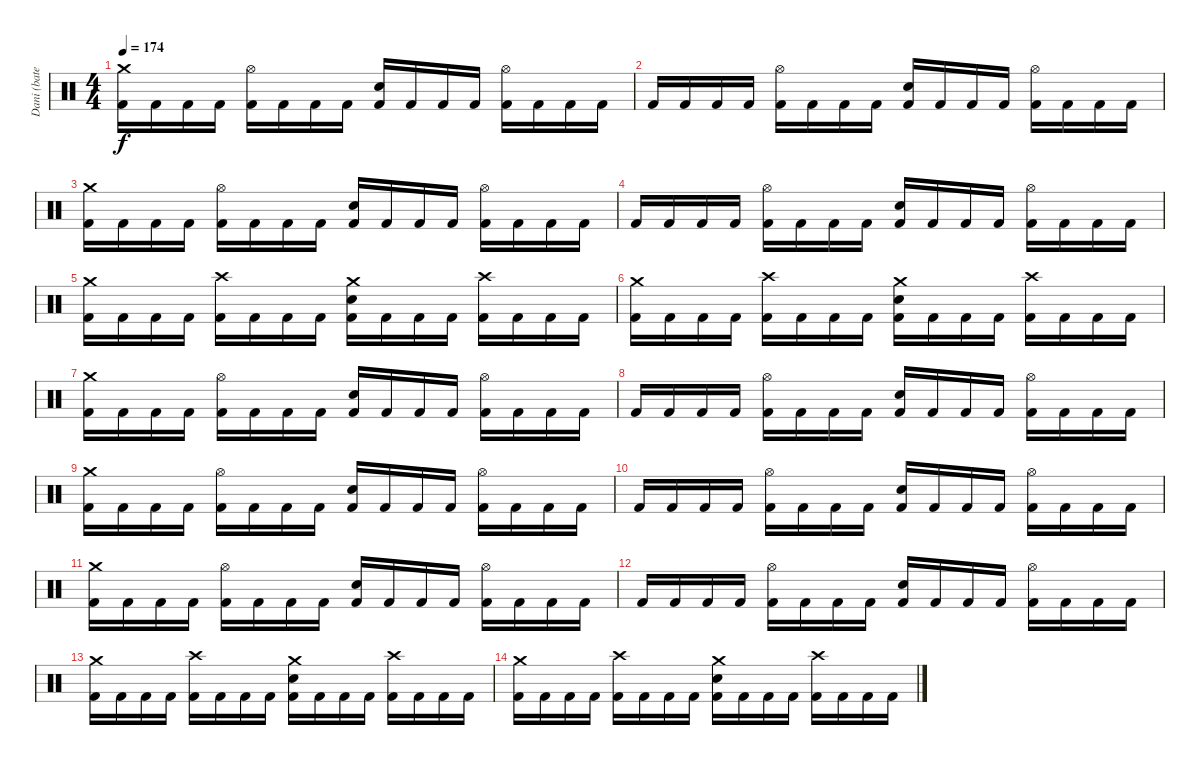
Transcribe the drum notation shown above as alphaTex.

\track ("Dani (batería)" "Dani (bate") {instrument percussion}
\staff {score}
\articulation defaults
\ts (4 4)
\tempo 174
\clef neutral
\ks c
("Crash medium (hit)" "Kick (hit) 2").16{dy f} "Kick (hit) 2".16 "Kick (hit) 2".16 "Kick (hit) 2".16 ("Hi-Hat (open)" "Kick (hit) 2").16 "Kick (hit) 2".16 "Kick (hit) 2".16 "Kick (hit) 2".16 ("Electric Snare (hit)" "Kick (hit) 2").16 "Kick (hit) 2".16 "Kick (hit) 2".16 "Kick (hit) 2".16 ("Hi-Hat (open)" "Kick (hit) 2").16 "Kick (hit) 2".16 "Kick (hit) 2".16 "Kick (hit) 2".16 |
"Kick (hit) 2".16 "Kick (hit) 2".16 "Kick (hit) 2".16 "Kick (hit) 2".16 ("Hi-Hat (open)" "Kick (hit) 2").16 "Kick (hit) 2".16 "Kick (hit) 2".16 "Kick (hit) 2".16 ("Electric Snare (hit)" "Kick (hit) 2").16 "Kick (hit) 2".16 "Kick (hit) 2".16 "Kick (hit) 2".16 ("Hi-Hat (open)" "Kick (hit) 2").16 "Kick (hit) 2".16 "Kick (hit) 2".16 "Kick (hit) 2".16 |
("Crash medium (hit)" "Kick (hit) 2").16 "Kick (hit) 2".16 "Kick (hit) 2".16 "Kick (hit) 2".16 ("Hi-Hat (open)" "Kick (hit) 2").16 "Kick (hit) 2".16 "Kick (hit) 2".16 "Kick (hit) 2".16 ("Electric Snare (hit)" "Kick (hit) 2").16 "Kick (hit) 2".16 "Kick (hit) 2".16 "Kick (hit) 2".16 ("Hi-Hat (open)" "Kick (hit) 2").16 "Kick (hit) 2".16 "Kick (hit) 2".16 "Kick (hit) 2".16 |
"Kick (hit) 2".16 "Kick (hit) 2".16 "Kick (hit) 2".16 "Kick (hit) 2".16 ("Hi-Hat (open)" "Kick (hit) 2").16 "Kick (hit) 2".16 "Kick (hit) 2".16 "Kick (hit) 2".16 ("Electric Snare (hit)" "Kick (hit) 2").16 "Kick (hit) 2".16 "Kick (hit) 2".16 "Kick (hit) 2".16 ("Hi-Hat (open)" "Kick (hit) 2").16 "Kick (hit) 2".16 "Kick (hit) 2".16 "Kick (hit) 2".16 |
("Crash medium (hit)" "Kick (hit) 2").16 "Kick (hit) 2".16 "Kick (hit) 2".16 "Kick (hit) 2".16 ("Crash high (hit)" "Kick (hit) 2").16 "Kick (hit) 2".16 "Kick (hit) 2".16 "Kick (hit) 2".16 ("Crash medium (hit)" "Electric Snare (hit)" "Kick (hit) 2").16 "Kick (hit) 2".16 "Kick (hit) 2".16 "Kick (hit) 2".16 ("Crash high (hit)" "Kick (hit) 2").16 "Kick (hit) 2".16 "Kick (hit) 2".16 "Kick (hit) 2".16 |
("Crash medium (hit)" "Kick (hit) 2").16 "Kick (hit) 2".16 "Kick (hit) 2".16 "Kick (hit) 2".16 ("Crash high (hit)" "Kick (hit) 2").16 "Kick (hit) 2".16 "Kick (hit) 2".16 "Kick (hit) 2".16 ("Crash medium (hit)" "Electric Snare (hit)" "Kick (hit) 2").16 "Kick (hit) 2".16 "Kick (hit) 2".16 "Kick (hit) 2".16 ("Crash high (hit)" "Kick (hit) 2").16 "Kick (hit) 2".16 "Kick (hit) 2".16 "Kick (hit) 2".16 |
("Crash medium (hit)" "Kick (hit) 2").16 "Kick (hit) 2".16 "Kick (hit) 2".16 "Kick (hit) 2".16 ("Hi-Hat (open)" "Kick (hit) 2").16 "Kick (hit) 2".16 "Kick (hit) 2".16 "Kick (hit) 2".16 ("Electric Snare (hit)" "Kick (hit) 2").16 "Kick (hit) 2".16 "Kick (hit) 2".16 "Kick (hit) 2".16 ("Hi-Hat (open)" "Kick (hit) 2").16 "Kick (hit) 2".16 "Kick (hit) 2".16 "Kick (hit) 2".16 |
"Kick (hit) 2".16 "Kick (hit) 2".16 "Kick (hit) 2".16 "Kick (hit) 2".16 ("Hi-Hat (open)" "Kick (hit) 2").16 "Kick (hit) 2".16 "Kick (hit) 2".16 "Kick (hit) 2".16 ("Electric Snare (hit)" "Kick (hit) 2").16 "Kick (hit) 2".16 "Kick (hit) 2".16 "Kick (hit) 2".16 ("Hi-Hat (open)" "Kick (hit) 2").16 "Kick (hit) 2".16 "Kick (hit) 2".16 "Kick (hit) 2".16 |
("Crash medium (hit)" "Kick (hit) 2").16{volume 14} "Kick (hit) 2".16 "Kick (hit) 2".16 "Kick (hit) 2".16 ("Hi-Hat (open)" "Kick (hit) 2").16 "Kick (hit) 2".16 "Kick (hit) 2".16 "Kick (hit) 2".16 ("Electric Snare (hit)" "Kick (hit) 2").16 "Kick (hit) 2".16 "Kick (hit) 2".16 "Kick (hit) 2".16 ("Hi-Hat (open)" "Kick (hit) 2").16 "Kick (hit) 2".16 "Kick (hit) 2".16 "Kick (hit) 2".16 |
"Kick (hit) 2".16{volume 12} "Kick (hit) 2".16 "Kick (hit) 2".16 "Kick (hit) 2".16 ("Hi-Hat (open)" "Kick (hit) 2").16 "Kick (hit) 2".16 "Kick (hit) 2".16 "Kick (hit) 2".16 ("Electric Snare (hit)" "Kick (hit) 2").16 "Kick (hit) 2".16 "Kick (hit) 2".16 "Kick (hit) 2".16 ("Hi-Hat (open)" "Kick (hit) 2").16 "Kick (hit) 2".16 "Kick (hit) 2".16 "Kick (hit) 2".16 |
("Crash medium (hit)" "Kick (hit) 2").16{volume 12} "Kick (hit) 2".16 "Kick (hit) 2".16 "Kick (hit) 2".16 ("Hi-Hat (open)" "Kick (hit) 2").16 "Kick (hit) 2".16 "Kick (hit) 2".16 "Kick (hit) 2".16 ("Electric Snare (hit)" "Kick (hit) 2").16 "Kick (hit) 2".16 "Kick (hit) 2".16 "Kick (hit) 2".16 ("Hi-Hat (open)" "Kick (hit) 2").16 "Kick (hit) 2".16 "Kick (hit) 2".16 "Kick (hit) 2".16 |
"Kick (hit) 2".16{volume 10} "Kick (hit) 2".16 "Kick (hit) 2".16 "Kick (hit) 2".16 ("Hi-Hat (open)" "Kick (hit) 2").16 "Kick (hit) 2".16 "Kick (hit) 2".16 "Kick (hit) 2".16 ("Electric Snare (hit)" "Kick (hit) 2").16 "Kick (hit) 2".16 "Kick (hit) 2".16 "Kick (hit) 2".16 ("Hi-Hat (open)" "Kick (hit) 2").16 "Kick (hit) 2".16 "Kick (hit) 2".16 "Kick (hit) 2".16 |
("Crash medium (hit)" "Kick (hit) 2").16{volume 8} "Kick (hit) 2".16 "Kick (hit) 2".16 "Kick (hit) 2".16 ("Crash high (hit)" "Kick (hit) 2").16 "Kick (hit) 2".16 "Kick (hit) 2".16 "Kick (hit) 2".16 ("Crash medium (hit)" "Electric Snare (hit)" "Kick (hit) 2").16 "Kick (hit) 2".16 "Kick (hit) 2".16 "Kick (hit) 2".16 ("Crash high (hit)" "Kick (hit) 2").16 "Kick (hit) 2".16 "Kick (hit) 2".16 "Kick (hit) 2".16 |
("Crash medium (hit)" "Kick (hit) 2").16{volume 6} "Kick (hit) 2".16 "Kick (hit) 2".16 "Kick (hit) 2".16 ("Crash high (hit)" "Kick (hit) 2").16 "Kick (hit) 2".16 "Kick (hit) 2".16 "Kick (hit) 2".16 ("Crash medium (hit)" "Electric Snare (hit)" "Kick (hit) 2").16 "Kick (hit) 2".16 "Kick (hit) 2".16 "Kick (hit) 2".16 ("Crash high (hit)" "Kick (hit) 2").16 "Kick (hit) 2".16 "Kick (hit) 2".16 "Kick (hit) 2".16
